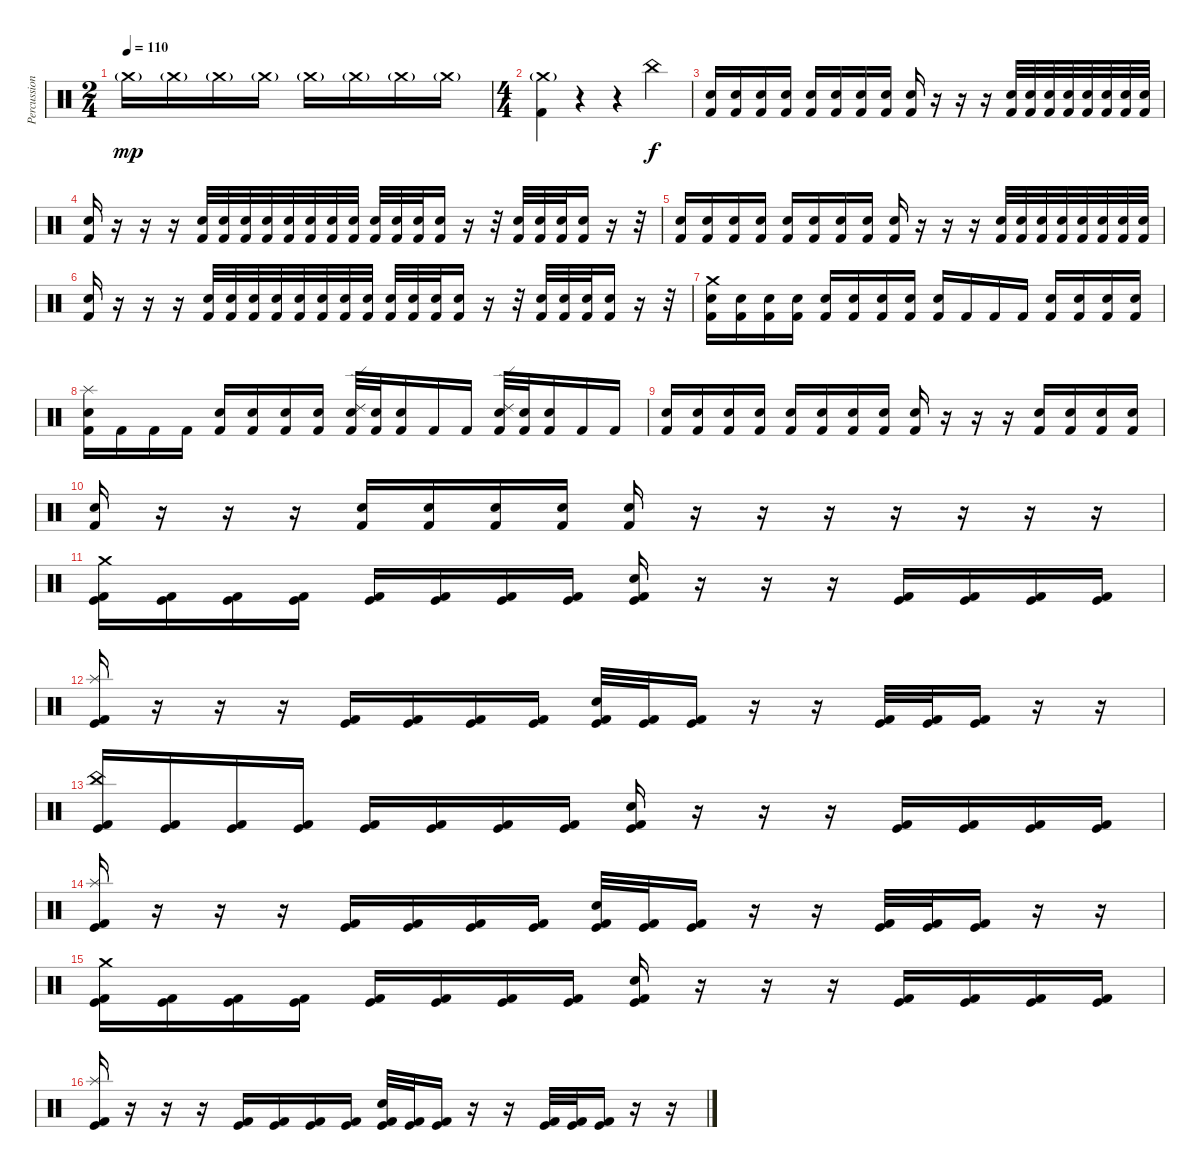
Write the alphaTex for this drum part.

\track ("Percussion" "Percussion") {instrument percussion}
\staff {score}
\articulation defaults
\ts (2 4)
\tempo 110
\clef neutral
\ks c "Crash medium (hit)"{g}.16{dy mp} "Crash medium (hit)"{g}.16 "Crash medium (hit)"{g}.16 "Crash medium (hit)"{g}.16 "Crash medium (hit)"{g}.16 "Crash medium (hit)"{g}.16 "Crash medium (hit)"{g}.16 "Crash medium (hit)"{g}.16
|
\ts (4 4)
("Crash medium (hit)"{g} "Kick (hit) 2").4 r.4 r.4 "China (hit)".4{dy f} |
("Snare (hit) 2" "Kick (hit) 2").16 ("Snare (hit) 2" "Kick (hit) 2").16 ("Snare (hit) 2" "Kick (hit) 2").16 ("Snare (hit) 2" "Kick (hit) 2").16 ("Snare (hit) 2" "Kick (hit) 2").16 ("Snare (hit) 2" "Kick (hit) 2").16 ("Snare (hit) 2" "Kick (hit) 2").16 ("Snare (hit) 2" "Kick (hit) 2").16 ("Snare (hit) 2" "Kick (hit) 2").16 r.16 r.16 r.16 ("Snare (hit) 2" "Kick (hit) 2").32 ("Snare (hit) 2" "Kick (hit) 2").32 ("Snare (hit) 2" "Kick (hit) 2").32 ("Snare (hit) 2" "Kick (hit) 2").32 ("Snare (hit) 2" "Kick (hit) 2").32 ("Snare (hit) 2" "Kick (hit) 2").32 ("Snare (hit) 2" "Kick (hit) 2").32 ("Snare (hit) 2" "Kick (hit) 2").32 |
("Snare (hit) 2" "Kick (hit) 2").16 r.16 r.16 r.16 ("Snare (hit) 2" "Kick (hit) 2").32 ("Snare (hit) 2" "Kick (hit) 2").32 ("Snare (hit) 2" "Kick (hit) 2").32 ("Snare (hit) 2" "Kick (hit) 2").32 ("Snare (hit) 2" "Kick (hit) 2").32 ("Snare (hit) 2" "Kick (hit) 2").32 ("Snare (hit) 2" "Kick (hit) 2").32 ("Snare (hit) 2" "Kick (hit) 2").32 ("Snare (hit) 2" "Kick (hit) 2").32 ("Snare (hit) 2" "Kick (hit) 2").32 ("Snare (hit) 2" "Kick (hit) 2").32 ("Snare (hit) 2" "Kick (hit) 2").16 r.16 r.32 ("Snare (hit) 2" "Kick (hit) 2").32 ("Snare (hit) 2" "Kick (hit) 2").32 ("Snare (hit) 2" "Kick (hit) 2").32 ("Snare (hit) 2" "Kick (hit) 2").16 r.16 r.32 |
("Snare (hit) 2" "Kick (hit) 2").16 ("Snare (hit) 2" "Kick (hit) 2").16 ("Snare (hit) 2" "Kick (hit) 2").16 ("Snare (hit) 2" "Kick (hit) 2").16 ("Snare (hit) 2" "Kick (hit) 2").16 ("Snare (hit) 2" "Kick (hit) 2").16 ("Snare (hit) 2" "Kick (hit) 2").16 ("Snare (hit) 2" "Kick (hit) 2").16 ("Snare (hit) 2" "Kick (hit) 2").16 r.16 r.16 r.16 ("Snare (hit) 2" "Kick (hit) 2").32 ("Snare (hit) 2" "Kick (hit) 2").32 ("Snare (hit) 2" "Kick (hit) 2").32 ("Snare (hit) 2" "Kick (hit) 2").32 ("Snare (hit) 2" "Kick (hit) 2").32 ("Snare (hit) 2" "Kick (hit) 2").32 ("Snare (hit) 2" "Kick (hit) 2").32 ("Snare (hit) 2" "Kick (hit) 2").32 |
("Snare (hit) 2" "Kick (hit) 2").16 r.16 r.16 r.16 ("Snare (hit) 2" "Kick (hit) 2").32 ("Snare (hit) 2" "Kick (hit) 2").32 ("Snare (hit) 2" "Kick (hit) 2").32 ("Snare (hit) 2" "Kick (hit) 2").32 ("Snare (hit) 2" "Kick (hit) 2").32 ("Snare (hit) 2" "Kick (hit) 2").32 ("Snare (hit) 2" "Kick (hit) 2").32 ("Snare (hit) 2" "Kick (hit) 2").32 ("Snare (hit) 2" "Kick (hit) 2").32 ("Snare (hit) 2" "Kick (hit) 2").32 ("Snare (hit) 2" "Kick (hit) 2").32 ("Snare (hit) 2" "Kick (hit) 2").16 r.16 r.32 ("Snare (hit) 2" "Kick (hit) 2").32 ("Snare (hit) 2" "Kick (hit) 2").32 ("Snare (hit) 2" "Kick (hit) 2").32 ("Snare (hit) 2" "Kick (hit) 2").16 r.16 r.32 |
("Crash medium (hit)" "Snare (hit) 2" "Kick (hit) 2").16 ("Snare (hit) 2" "Kick (hit) 2").16 ("Snare (hit) 2" "Kick (hit) 2").16 ("Snare (hit) 2" "Kick (hit) 2").16 ("Snare (hit) 2" "Kick (hit) 2").16 ("Snare (hit) 2" "Kick (hit) 2").16 ("Snare (hit) 2" "Kick (hit) 2").16 ("Snare (hit) 2" "Kick (hit) 2").16 ("Snare (hit) 2" "Kick (hit) 2").16 "Kick (hit) 2".16 "Kick (hit) 2".16 "Kick (hit) 2".16 ("Snare (hit) 2" "Kick (hit) 2").16 ("Snare (hit) 2" "Kick (hit) 2").16 ("Snare (hit) 2" "Kick (hit) 2").16 ("Snare (hit) 2" "Kick (hit) 2").16 |
("Splash (hit)" "Snare (hit) 2" "Kick (hit) 2").16 "Kick (hit) 2".16 "Kick (hit) 2".16 "Kick (hit) 2".16 ("Snare (hit) 2" "Kick (hit) 2").16 ("Snare (hit) 2" "Kick (hit) 2").16 ("Snare (hit) 2" "Kick (hit) 2").16 ("Snare (hit) 2" "Kick (hit) 2").16 ("Ride (edge) 2" "Snare (hit) 2" "Kick (hit) 2").32 ("Snare (hit) 2" "Kick (hit) 2").32 ("Snare (hit) 2" "Kick (hit) 2").16 "Kick (hit) 2".16 "Kick (hit) 2".16 ("Ride (edge) 2" "Snare (hit) 2" "Kick (hit) 2").32 ("Snare (hit) 2" "Kick (hit) 2").32 ("Snare (hit) 2" "Kick (hit) 2").16 "Kick (hit) 2".16 "Kick (hit) 2".16 |
("Snare (hit) 2" "Kick (hit) 2").16 ("Snare (hit) 2" "Kick (hit) 2").16 ("Snare (hit) 2" "Kick (hit) 2").16 ("Snare (hit) 2" "Kick (hit) 2").16 ("Snare (hit) 2" "Kick (hit) 2").16 ("Snare (hit) 2" "Kick (hit) 2").16 ("Snare (hit) 2" "Kick (hit) 2").16 ("Snare (hit) 2" "Kick (hit) 2").16 ("Snare (hit) 2" "Kick (hit) 2").16 r.16 r.16 r.16 ("Snare (hit) 2" "Kick (hit) 2").16 ("Snare (hit) 2" "Kick (hit) 2").16 ("Snare (hit) 2" "Kick (hit) 2").16 ("Snare (hit) 2" "Kick (hit) 2").16 |
("Snare (hit) 2" "Kick (hit) 2").16 r.16 r.16 r.16 ("Snare (hit) 2" "Kick (hit) 2").16 ("Snare (hit) 2" "Kick (hit) 2").16 ("Snare (hit) 2" "Kick (hit) 2").16 ("Snare (hit) 2" "Kick (hit) 2").16 ("Snare (hit) 2" "Kick (hit) 2").16 r.16 r.16 r.16 r.16 r.16 r.16 r.16 |
("Crash medium (hit)" "Kick (hit)" "Kick (hit) 2").16 ("Kick (hit)" "Kick (hit) 2").16 ("Kick (hit)" "Kick (hit) 2").16 ("Kick (hit)" "Kick (hit) 2").16 ("Kick (hit)" "Kick (hit) 2").16 ("Kick (hit)" "Kick (hit) 2").16 ("Kick (hit)" "Kick (hit) 2").16 ("Kick (hit)" "Kick (hit) 2").16 ("Snare (hit) 2" "Kick (hit)" "Kick (hit) 2").16 r.16 r.16 r.16 ("Kick (hit)" "Kick (hit) 2").16 ("Kick (hit)" "Kick (hit) 2").16 ("Kick (hit)" "Kick (hit) 2").16 ("Kick (hit)" "Kick (hit) 2").16 |
("Splash (hit)" "Kick (hit)" "Kick (hit) 2").16 r.16 r.16 r.16 ("Kick (hit)" "Kick (hit) 2").16 ("Kick (hit)" "Kick (hit) 2").16 ("Kick (hit)" "Kick (hit) 2").16 ("Kick (hit)" "Kick (hit) 2").16 ("Kick (hit)" "Snare (hit) 2" "Kick (hit) 2").32 ("Kick (hit)" "Kick (hit) 2").32 ("Kick (hit)" "Kick (hit) 2").16 r.16 r.16 ("Kick (hit)" "Kick (hit) 2").32 ("Kick (hit)" "Kick (hit) 2").32 ("Kick (hit)" "Kick (hit) 2").16 r.16 r.16 |
("China (hit)" "Kick (hit)" "Kick (hit) 2").16 ("Kick (hit)" "Kick (hit) 2").16 ("Kick (hit)" "Kick (hit) 2").16 ("Kick (hit)" "Kick (hit) 2").16 ("Kick (hit)" "Kick (hit) 2").16 ("Kick (hit)" "Kick (hit) 2").16 ("Kick (hit)" "Kick (hit) 2").16 ("Kick (hit)" "Kick (hit) 2").16 ("Snare (hit) 2" "Kick (hit)" "Kick (hit) 2").16 r.16 r.16 r.16 ("Kick (hit)" "Kick (hit) 2").16 ("Kick (hit)" "Kick (hit) 2").16 ("Kick (hit)" "Kick (hit) 2").16 ("Kick (hit)" "Kick (hit) 2").16 |
("Splash (hit)" "Kick (hit)" "Kick (hit) 2").16 r.16 r.16 r.16 ("Kick (hit)" "Kick (hit) 2").16 ("Kick (hit)" "Kick (hit) 2").16 ("Kick (hit)" "Kick (hit) 2").16 ("Kick (hit)" "Kick (hit) 2").16 ("Kick (hit)" "Snare (hit) 2" "Kick (hit) 2").32 ("Kick (hit)" "Kick (hit) 2").32 ("Kick (hit)" "Kick (hit) 2").16 r.16 r.16 ("Kick (hit)" "Kick (hit) 2").32 ("Kick (hit)" "Kick (hit) 2").32 ("Kick (hit)" "Kick (hit) 2").16 r.16 r.16 |
("Crash medium (hit)" "Kick (hit)" "Kick (hit) 2").16 ("Kick (hit)" "Kick (hit) 2").16 ("Kick (hit)" "Kick (hit) 2").16 ("Kick (hit)" "Kick (hit) 2").16 ("Kick (hit)" "Kick (hit) 2").16 ("Kick (hit)" "Kick (hit) 2").16 ("Kick (hit)" "Kick (hit) 2").16 ("Kick (hit)" "Kick (hit) 2").16 ("Snare (hit) 2" "Kick (hit)" "Kick (hit) 2").16 r.16 r.16 r.16 ("Kick (hit)" "Kick (hit) 2").16 ("Kick (hit)" "Kick (hit) 2").16 ("Kick (hit)" "Kick (hit) 2").16 ("Kick (hit)" "Kick (hit) 2").16 |
("Splash (hit)" "Kick (hit)" "Kick (hit) 2").16 r.16 r.16 r.16 ("Kick (hit)" "Kick (hit) 2").16 ("Kick (hit)" "Kick (hit) 2").16 ("Kick (hit)" "Kick (hit) 2").16 ("Kick (hit)" "Kick (hit) 2").16 ("Kick (hit)" "Snare (hit) 2" "Kick (hit) 2").32 ("Kick (hit)" "Kick (hit) 2").32 ("Kick (hit)" "Kick (hit) 2").16 r.16 r.16 ("Kick (hit)" "Kick (hit) 2").32 ("Kick (hit)" "Kick (hit) 2").32 ("Kick (hit)" "Kick (hit) 2").16 r.16 r.16
